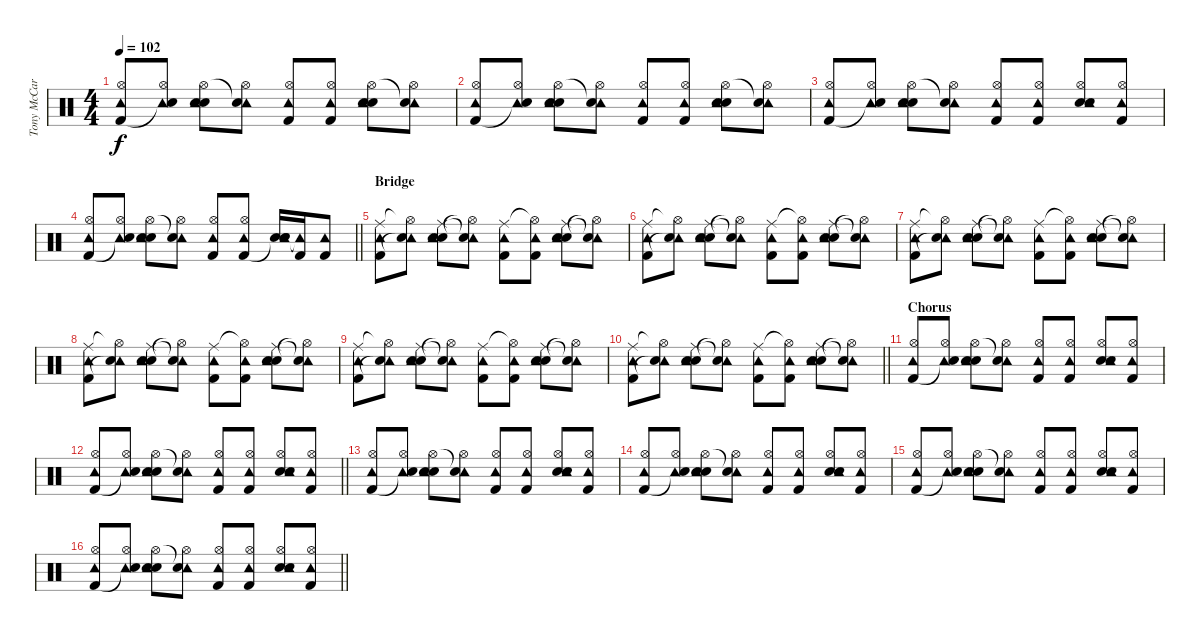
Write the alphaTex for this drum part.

\track ("Tony McCaroll" "Tony McCar") {instrument percussion}
\staff {score}
\articulation defaults
\ts (4 4)
\tempo 102
\clef neutral
\ks c
("Tambourine (hit)" "Hi-Hat (open)" "Kick (hit) 2").8{dy f} ("Tambourine (hit)" "Hi-Hat (open)" "Snare (hit)"{t}).8 ("Hand Clap (hit)" "Tambourine (hit)" "Hi-Hat (open)" "Electric Snare (hit)").8 ("Tambourine (hit)" "Hi-Hat (open)" "Snare (hit)"{t}).8 ("Tambourine (hit)" "Hi-Hat (open)" "Kick (hit) 2").8 ("Tambourine (hit)" "Hi-Hat (open)" "Kick (hit) 2").8 ("Hand Clap (hit)" "Tambourine (hit)" "Hi-Hat (open)" "Electric Snare (hit)").8 ("Tambourine (hit)" "Hi-Hat (open)" "Snare (hit)"{t}).8 |
("Tambourine (hit)" "Hi-Hat (open)" "Kick (hit) 2").8 ("Tambourine (hit)" "Hi-Hat (open)" "Snare (hit)"{t}).8 ("Hand Clap (hit)" "Tambourine (hit)" "Hi-Hat (open)" "Electric Snare (hit)").8 ("Tambourine (hit)" "Hi-Hat (open)" "Snare (hit)"{t}).8 ("Tambourine (hit)" "Hi-Hat (open)" "Kick (hit) 2").8 ("Tambourine (hit)" "Hi-Hat (open)" "Kick (hit) 2").8 ("Hand Clap (hit)" "Tambourine (hit)" "Hi-Hat (open)" "Electric Snare (hit)").8 ("Tambourine (hit)" "Hi-Hat (open)" "Snare (hit)"{t}).8 |
("Tambourine (hit)" "Hi-Hat (open)" "Kick (hit) 2").8 ("Tambourine (hit)" "Hi-Hat (open)" "Snare (hit)"{t}).8 ("Hand Clap (hit)" "Tambourine (hit)" "Hi-Hat (open)" "Electric Snare (hit)").8 ("Tambourine (hit)" "Hi-Hat (open)" "Snare (hit)"{t}).8 ("Tambourine (hit)" "Hi-Hat (open)" "Kick (hit) 2").8 ("Tambourine (hit)" "Hi-Hat (open)" "Kick (hit) 2").8 ("Hand Clap (hit)" "Tambourine (hit)" "Hi-Hat (open)" "Electric Snare (hit)").8 ("Tambourine (hit)" "Hi-Hat (open)" "Kick (hit) 2").8 |
\barLineRight lightlight
("Tambourine (hit)" "Hi-Hat (open)" "Kick (hit) 2").8 ("Tambourine (hit)" "Hi-Hat (open)" "Snare (hit)"{t}).8 ("Hand Clap (hit)" "Tambourine (hit)" "Hi-Hat (open)" "Electric Snare (hit)").8 ("Tambourine (hit)" "Hi-Hat (open)" "Snare (hit)"{t}).8 ("Tambourine (hit)" "Hi-Hat (open)" "Kick (hit) 2").8 ("Tambourine (hit)" "Hi-Hat (open)" "Kick (hit) 2").8 ("Hand Clap (hit)" "Tambourine (hit)" "Electric Snare (hit)"{t} "Electric Snare (hit)").16 ("Tambourine (hit)"{t} "Kick (hit) 2").16 ("Tambourine (hit)" "Kick (hit) 2").8 |
\section ("" "Bridge")
("Tambourine (hit)" "Ride (middle)" "Kick (hit) 2").8 ("Tambourine (hit)" "Hi-Hat (open)"{t} "Snare (hit)"{t}).8 ("Hand Clap (hit)" "Tambourine (hit)" "Ride (middle)" "Electric Snare (hit)").8 ("Tambourine (hit)" "Hi-Hat (open)"{t} "Snare (hit)"{t}).8 ("Tambourine (hit)" "Ride (middle)" "Kick (hit) 2").8 ("Tambourine (hit)" "Hi-Hat (open)"{t} "Kick (hit) 2").8 ("Hand Clap (hit)" "Tambourine (hit)" "Ride (middle)" "Electric Snare (hit)").8 ("Tambourine (hit)" "Hi-Hat (open)"{t} "Snare (hit)"{t}).8 |
("Tambourine (hit)" "Ride (middle)" "Kick (hit) 2").8 ("Tambourine (hit)" "Hi-Hat (open)"{t} "Snare (hit)"{t}).8 ("Hand Clap (hit)" "Tambourine (hit)" "Ride (middle)" "Electric Snare (hit)").8 ("Tambourine (hit)" "Hi-Hat (open)"{t} "Snare (hit)"{t}).8 ("Tambourine (hit)" "Ride (middle)" "Kick (hit) 2").8 ("Tambourine (hit)" "Hi-Hat (open)"{t} "Kick (hit) 2").8 ("Hand Clap (hit)" "Tambourine (hit)" "Ride (middle)" "Electric Snare (hit)").8 ("Tambourine (hit)" "Hi-Hat (open)"{t} "Snare (hit)"{t}).8 |
("Tambourine (hit)" "Ride (middle)" "Kick (hit) 2").8 ("Tambourine (hit)" "Hi-Hat (open)"{t} "Snare (hit)"{t}).8 ("Hand Clap (hit)" "Tambourine (hit)" "Ride (middle)" "Electric Snare (hit)").8 ("Tambourine (hit)" "Hi-Hat (open)"{t} "Snare (hit)"{t}).8 ("Tambourine (hit)" "Ride (middle)" "Kick (hit) 2").8 ("Tambourine (hit)" "Hi-Hat (open)"{t} "Kick (hit) 2").8 ("Hand Clap (hit)" "Tambourine (hit)" "Ride (middle)" "Electric Snare (hit)").8 ("Tambourine (hit)" "Hi-Hat (open)"{t} "Snare (hit)"{t}).8 |
("Tambourine (hit)" "Ride (middle)" "Kick (hit) 2").8 ("Tambourine (hit)" "Hi-Hat (open)"{t} "Snare (hit)"{t}).8 ("Hand Clap (hit)" "Tambourine (hit)" "Ride (middle)" "Electric Snare (hit)").8 ("Tambourine (hit)" "Hi-Hat (open)"{t} "Snare (hit)"{t}).8 ("Tambourine (hit)" "Ride (middle)" "Kick (hit) 2").8 ("Tambourine (hit)" "Hi-Hat (open)"{t} "Kick (hit) 2").8 ("Hand Clap (hit)" "Tambourine (hit)" "Ride (middle)" "Electric Snare (hit)").8 ("Tambourine (hit)" "Hi-Hat (open)"{t} "Snare (hit)"{t}).8 |
("Tambourine (hit)" "Ride (middle)" "Kick (hit) 2").8 ("Tambourine (hit)" "Hi-Hat (open)"{t} "Snare (hit)"{t}).8 ("Hand Clap (hit)" "Tambourine (hit)" "Ride (middle)" "Electric Snare (hit)").8 ("Tambourine (hit)" "Hi-Hat (open)"{t} "Snare (hit)"{t}).8 ("Tambourine (hit)" "Ride (middle)" "Kick (hit) 2").8 ("Tambourine (hit)" "Hi-Hat (open)"{t} "Kick (hit) 2").8 ("Hand Clap (hit)" "Tambourine (hit)" "Ride (middle)" "Electric Snare (hit)").8 ("Tambourine (hit)" "Hi-Hat (open)"{t} "Snare (hit)"{t}).8 |
\barLineRight lightlight
("Tambourine (hit)" "Ride (middle)" "Kick (hit) 2").8 ("Tambourine (hit)" "Hi-Hat (open)"{t} "Snare (hit)"{t}).8 ("Hand Clap (hit)" "Tambourine (hit)" "Ride (middle)" "Electric Snare (hit)").8 ("Tambourine (hit)" "Hi-Hat (open)"{t} "Snare (hit)"{t}).8 ("Tambourine (hit)" "Ride (middle)" "Kick (hit) 2").8 ("Tambourine (hit)" "Hi-Hat (open)"{t} "Kick (hit) 2").8 ("Hand Clap (hit)" "Tambourine (hit)" "Ride (middle)" "Electric Snare (hit)").8 ("Tambourine (hit)" "Hi-Hat (open)"{t} "Snare (hit)"{t}).8 |
\section ("" "Chorus")
("Tambourine (hit)" "Hi-Hat (open)" "Kick (hit) 2").8 ("Tambourine (hit)" "Hi-Hat (open)" "Snare (hit)"{t}).8 ("Hand Clap (hit)" "Tambourine (hit)" "Hi-Hat (open)" "Electric Snare (hit)").8 ("Tambourine (hit)" "Hi-Hat (open)" "Snare (hit)"{t}).8 ("Tambourine (hit)" "Hi-Hat (open)" "Kick (hit) 2").8 ("Tambourine (hit)" "Hi-Hat (open)" "Kick (hit) 2").8 ("Hand Clap (hit)" "Tambourine (hit)" "Hi-Hat (open)" "Electric Snare (hit)").8 ("Tambourine (hit)" "Hi-Hat (open)" "Kick (hit) 2").8 |
\barLineRight lightlight
("Tambourine (hit)" "Hi-Hat (open)" "Kick (hit) 2").8 ("Tambourine (hit)" "Hi-Hat (open)" "Snare (hit)"{t}).8 ("Hand Clap (hit)" "Tambourine (hit)" "Hi-Hat (open)" "Electric Snare (hit)").8 ("Tambourine (hit)" "Hi-Hat (open)" "Snare (hit)"{t}).8 ("Tambourine (hit)" "Hi-Hat (open)" "Kick (hit) 2").8 ("Tambourine (hit)" "Hi-Hat (open)" "Kick (hit) 2").8 ("Hand Clap (hit)" "Tambourine (hit)" "Hi-Hat (open)" "Electric Snare (hit)").8 ("Tambourine (hit)" "Hi-Hat (open)" "Kick (hit) 2").8 |
("Tambourine (hit)" "Hi-Hat (open)" "Kick (hit) 2").8 ("Tambourine (hit)" "Hi-Hat (open)" "Snare (hit)"{t}).8 ("Hand Clap (hit)" "Tambourine (hit)" "Hi-Hat (open)" "Electric Snare (hit)").8 ("Tambourine (hit)" "Hi-Hat (open)" "Snare (hit)"{t}).8 ("Tambourine (hit)" "Hi-Hat (open)" "Kick (hit) 2").8 ("Tambourine (hit)" "Hi-Hat (open)" "Kick (hit) 2").8 ("Hand Clap (hit)" "Tambourine (hit)" "Hi-Hat (open)" "Electric Snare (hit)").8 ("Tambourine (hit)" "Hi-Hat (open)" "Kick (hit) 2").8 |
("Tambourine (hit)" "Hi-Hat (open)" "Kick (hit) 2").8 ("Tambourine (hit)" "Hi-Hat (open)" "Snare (hit)"{t}).8 ("Hand Clap (hit)" "Tambourine (hit)" "Hi-Hat (open)" "Electric Snare (hit)").8 ("Tambourine (hit)" "Hi-Hat (open)" "Snare (hit)"{t}).8 ("Tambourine (hit)" "Hi-Hat (open)" "Kick (hit) 2").8 ("Tambourine (hit)" "Hi-Hat (open)" "Kick (hit) 2").8 ("Hand Clap (hit)" "Tambourine (hit)" "Hi-Hat (open)" "Electric Snare (hit)").8 ("Tambourine (hit)" "Hi-Hat (open)" "Kick (hit) 2").8 |
("Tambourine (hit)" "Hi-Hat (open)" "Kick (hit) 2").8 ("Tambourine (hit)" "Hi-Hat (open)" "Snare (hit)"{t}).8 ("Hand Clap (hit)" "Tambourine (hit)" "Hi-Hat (open)" "Electric Snare (hit)").8 ("Tambourine (hit)" "Hi-Hat (open)" "Snare (hit)"{t}).8 ("Tambourine (hit)" "Hi-Hat (open)" "Kick (hit) 2").8 ("Tambourine (hit)" "Hi-Hat (open)" "Kick (hit) 2").8 ("Hand Clap (hit)" "Tambourine (hit)" "Hi-Hat (open)" "Electric Snare (hit)").8 ("Tambourine (hit)" "Hi-Hat (open)" "Kick (hit) 2").8 |
\barLineRight lightlight
("Tambourine (hit)" "Hi-Hat (open)" "Kick (hit) 2").8 ("Tambourine (hit)" "Hi-Hat (open)" "Snare (hit)"{t}).8 ("Hand Clap (hit)" "Tambourine (hit)" "Hi-Hat (open)" "Electric Snare (hit)").8 ("Tambourine (hit)" "Hi-Hat (open)" "Snare (hit)"{t}).8 ("Tambourine (hit)" "Hi-Hat (open)" "Kick (hit) 2").8 ("Tambourine (hit)" "Hi-Hat (open)" "Kick (hit) 2").8 ("Hand Clap (hit)" "Tambourine (hit)" "Hi-Hat (open)" "Electric Snare (hit)").8 ("Tambourine (hit)" "Hi-Hat (open)" "Kick (hit) 2").8
